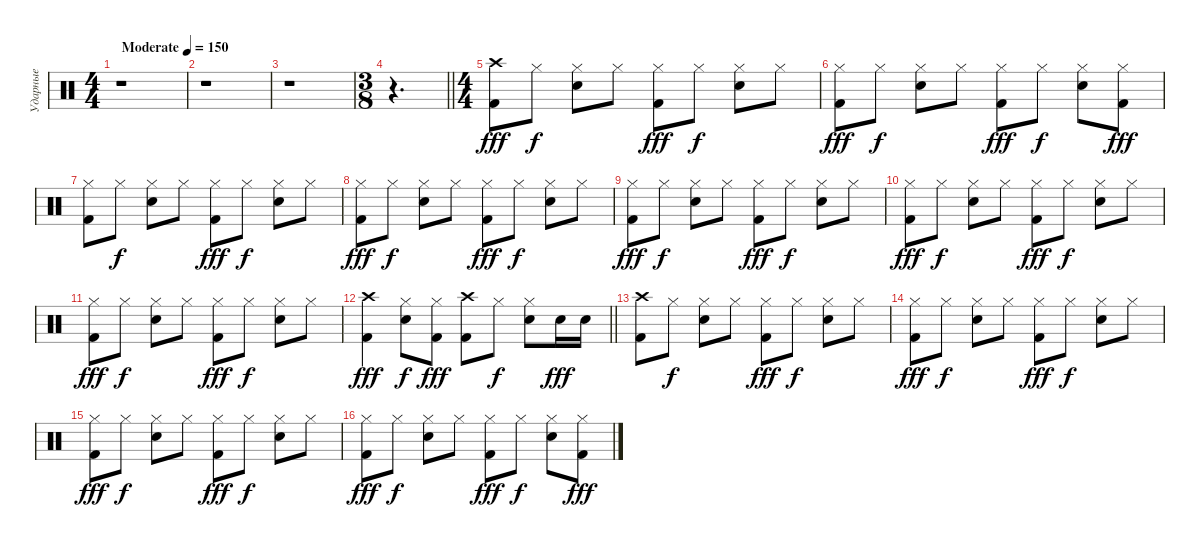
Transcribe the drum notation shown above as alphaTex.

\track ("Ударные" "Ударные") {instrument percussion}
\staff
\articulation defaults
\ts (4 4)
\tempo (150 "Moderate")
\clef neutral
\ks c
r.1{dy fff} |
r.1 |
r.1 |
\ts (3 8)
\barLineRight lightlight
r.4{d} |
\ts (4 4)
("Kick (hit) 2" "Crash high (hit)").8 "Hi-Hat (closed)".8{dy f} ("Snare (hit) 2" "Hi-Hat (closed)").8 "Hi-Hat (closed)".8 ("Kick (hit) 2" "Hi-Hat (closed)").8{dy fff} "Hi-Hat (closed)".8{dy f} ("Snare (hit) 2" "Hi-Hat (closed)").8 "Hi-Hat (closed)".8 |
("Kick (hit) 2" "Hi-Hat (closed)").8{dy fff} "Hi-Hat (closed)".8{dy f} ("Snare (hit) 2" "Hi-Hat (closed)").8 "Hi-Hat (closed)".8 ("Kick (hit) 2" "Hi-Hat (closed)").8{dy fff} "Hi-Hat (closed)".8{dy f} ("Snare (hit) 2" "Hi-Hat (closed)").8 ("Kick (hit) 2" "Hi-Hat (closed)").8{dy fff} |
("Kick (hit) 2" "Hi-Hat (closed)").8 "Hi-Hat (closed)".8{dy f} ("Snare (hit) 2" "Hi-Hat (closed)").8 "Hi-Hat (closed)".8 ("Kick (hit) 2" "Hi-Hat (closed)").8{dy fff} "Hi-Hat (closed)".8{dy f} ("Snare (hit) 2" "Hi-Hat (closed)").8 "Hi-Hat (closed)".8 |
("Kick (hit) 2" "Hi-Hat (closed)").8{dy fff} "Hi-Hat (closed)".8{dy f} ("Snare (hit) 2" "Hi-Hat (closed)").8 "Hi-Hat (closed)".8 ("Kick (hit) 2" "Hi-Hat (closed)").8{dy fff} "Hi-Hat (closed)".8{dy f} ("Snare (hit) 2" "Hi-Hat (closed)").8 "Hi-Hat (closed)".8 |
("Kick (hit) 2" "Hi-Hat (closed)").8{dy fff} "Hi-Hat (closed)".8{dy f} ("Snare (hit) 2" "Hi-Hat (closed)").8 "Hi-Hat (closed)".8 ("Kick (hit) 2" "Hi-Hat (closed)").8{dy fff} "Hi-Hat (closed)".8{dy f} ("Snare (hit) 2" "Hi-Hat (closed)").8 "Hi-Hat (closed)".8 |
("Kick (hit) 2" "Hi-Hat (closed)").8{dy fff} "Hi-Hat (closed)".8{dy f} ("Snare (hit) 2" "Hi-Hat (closed)").8 "Hi-Hat (closed)".8 ("Kick (hit) 2" "Hi-Hat (closed)").8{dy fff} "Hi-Hat (closed)".8{dy f} ("Snare (hit) 2" "Hi-Hat (closed)").8 "Hi-Hat (closed)".8 |
("Kick (hit) 2" "Hi-Hat (closed)").8{dy fff} "Hi-Hat (closed)".8{dy f} ("Snare (hit) 2" "Hi-Hat (closed)").8 "Hi-Hat (closed)".8 ("Kick (hit) 2" "Hi-Hat (closed)").8{dy fff} "Hi-Hat (closed)".8{dy f} ("Snare (hit) 2" "Hi-Hat (closed)").8 "Hi-Hat (closed)".8 |
\barLineRight lightlight
("Kick (hit) 2" "Crash high (hit)").4{dy fff} ("Snare (hit) 2" "Hi-Hat (closed)").8{dy f} ("Kick (hit) 2" "Hi-Hat (closed)").8{dy fff} ("Kick (hit) 2" "Crash high (hit)").8 "Hi-Hat (closed)".8{dy f} ("Snare (hit) 2" "Hi-Hat (closed)").8 "Electric Snare (hit)".16{dy fff} "Electric Snare (hit)".16 |
("Kick (hit) 2" "Crash high (hit)").8 "Hi-Hat (closed)".8{dy f} ("Snare (hit) 2" "Hi-Hat (closed)").8 "Hi-Hat (closed)".8 ("Kick (hit) 2" "Hi-Hat (closed)").8{dy fff} "Hi-Hat (closed)".8{dy f} ("Snare (hit) 2" "Hi-Hat (closed)").8 "Hi-Hat (closed)".8 |
("Kick (hit) 2" "Hi-Hat (closed)").8{dy fff} "Hi-Hat (closed)".8{dy f} ("Snare (hit) 2" "Hi-Hat (closed)").8 "Hi-Hat (closed)".8 ("Kick (hit) 2" "Hi-Hat (closed)").8{dy fff} "Hi-Hat (closed)".8{dy f} ("Snare (hit) 2" "Hi-Hat (closed)").8 "Hi-Hat (closed)".8 |
("Kick (hit) 2" "Hi-Hat (closed)").8{dy fff} "Hi-Hat (closed)".8{dy f} ("Snare (hit) 2" "Hi-Hat (closed)").8 "Hi-Hat (closed)".8 ("Kick (hit) 2" "Hi-Hat (closed)").8{dy fff} "Hi-Hat (closed)".8{dy f} ("Snare (hit) 2" "Hi-Hat (closed)").8 "Hi-Hat (closed)".8 |
("Kick (hit) 2" "Hi-Hat (closed)").8{dy fff} "Hi-Hat (closed)".8{dy f} ("Snare (hit) 2" "Hi-Hat (closed)").8 "Hi-Hat (closed)".8 ("Kick (hit) 2" "Hi-Hat (closed)").8{dy fff} "Hi-Hat (closed)".8{dy f} ("Snare (hit) 2" "Hi-Hat (closed)").8 ("Kick (hit) 2" "Hi-Hat (closed)").8{dy fff}
